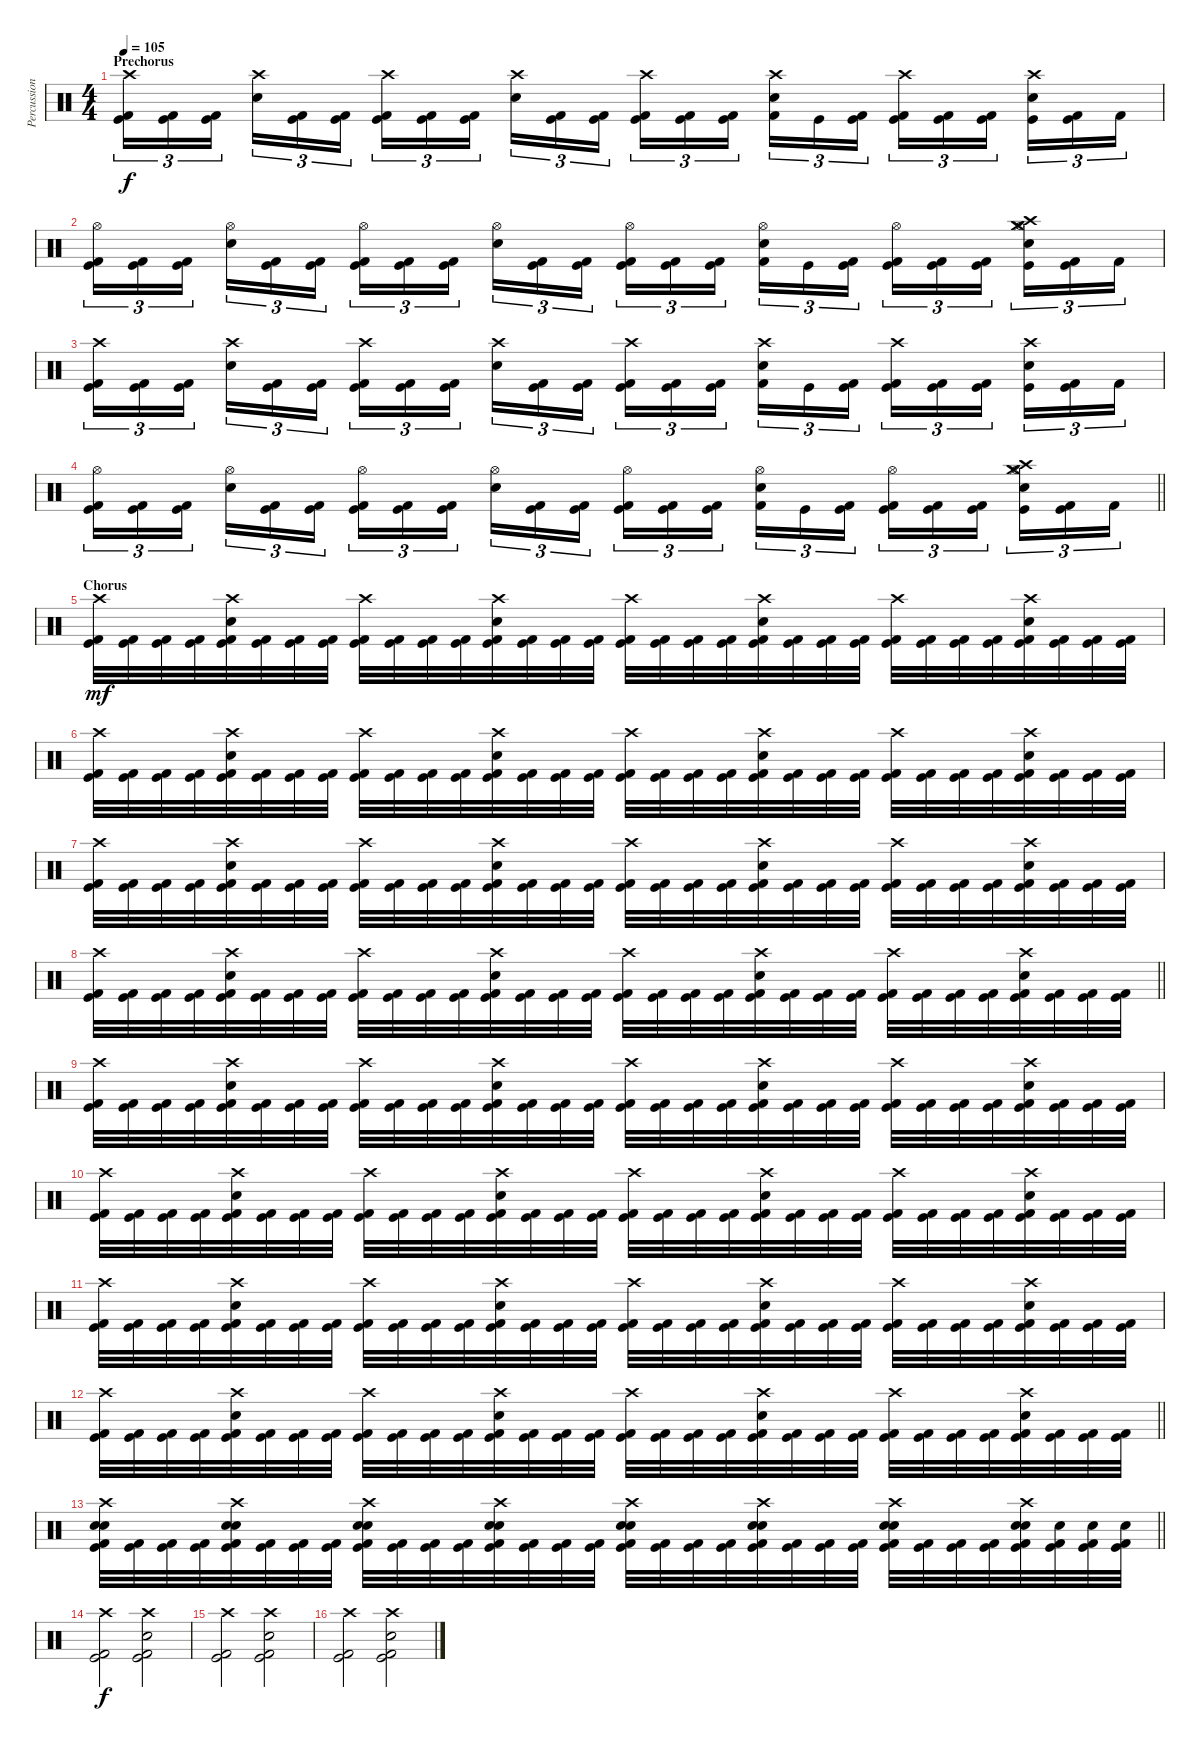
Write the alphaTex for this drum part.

\track ("Percussion" "Percussion") {instrument percussion}
\staff {score}
\articulation defaults
\ts (4 4)
\section ("" "Prechorus")
\tempo 105
\clef neutral
\ks c
("Crash high (hit)" "Kick (hit)" "Kick (hit) 2").16{tu (3 2) dy f} ("Kick (hit)" "Kick (hit) 2").16{tu (3 2)} ("Kick (hit)" "Kick (hit) 2").16{tu (3 2) beam splitsecondary} ("Crash high (hit)" "Snare (hit) 2").16{tu (3 2)} ("Kick (hit) 2" "Kick (hit)").16{tu (3 2)} ("Kick (hit) 2" "Kick (hit)").16{tu (3 2)} ("Crash high (hit)" "Kick (hit) 2" "Kick (hit)").16{tu (3 2)} ("Kick (hit) 2" "Kick (hit)").16{tu (3 2)} ("Kick (hit) 2" "Kick (hit)").16{tu (3 2) beam splitsecondary} ("Crash high (hit)" "Snare (hit) 2").16{tu (3 2)} ("Kick (hit)" "Kick (hit) 2").16{tu (3 2)} ("Kick (hit)" "Kick (hit) 2").16{tu (3 2)} ("Crash high (hit)" "Kick (hit)" "Kick (hit) 2").16{tu (3 2)} ("Kick (hit)" "Kick (hit) 2").16{tu (3 2)} ("Kick (hit)" "Kick (hit) 2").16{tu (3 2) beam splitsecondary} ("Crash high (hit)" "Snare (hit) 2" "Kick (hit) 2").16{tu (3 2)} "Kick (hit)".16{tu (3 2)} ("Kick (hit) 2" "Kick (hit)").16{tu (3 2)} ("Crash high (hit)" "Kick (hit) 2" "Kick (hit)").16{tu (3 2)} ("Kick (hit) 2" "Kick (hit)").16{tu (3 2)} ("Kick (hit) 2" "Kick (hit)").16{tu (3 2) beam splitsecondary} ("Crash high (hit)" "Snare (hit) 2" "Kick (hit)").16{tu (3 2)} ("Kick (hit) 2" "Kick (hit)").16{tu (3 2)} "Kick (hit) 2".16{tu (3 2)} |
("Hi-Hat (open)" "Kick (hit)" "Kick (hit) 2").16{tu (3 2)} ("Kick (hit)" "Kick (hit) 2").16{tu (3 2)} ("Kick (hit)" "Kick (hit) 2").16{tu (3 2) beam splitsecondary} ("Hi-Hat (open)" "Snare (hit) 2").16{tu (3 2)} ("Kick (hit) 2" "Kick (hit)").16{tu (3 2)} ("Kick (hit) 2" "Kick (hit)").16{tu (3 2)} ("Hi-Hat (open)" "Kick (hit) 2" "Kick (hit)").16{tu (3 2)} ("Kick (hit) 2" "Kick (hit)").16{tu (3 2)} ("Kick (hit) 2" "Kick (hit)").16{tu (3 2) beam splitsecondary} ("Hi-Hat (open)" "Snare (hit) 2").16{tu (3 2)} ("Kick (hit)" "Kick (hit) 2").16{tu (3 2)} ("Kick (hit)" "Kick (hit) 2").16{tu (3 2)} ("Hi-Hat (open)" "Kick (hit)" "Kick (hit) 2").16{tu (3 2)} ("Kick (hit)" "Kick (hit) 2").16{tu (3 2)} ("Kick (hit)" "Kick (hit) 2").16{tu (3 2) beam splitsecondary} ("Hi-Hat (open)" "Snare (hit) 2" "Kick (hit) 2").16{tu (3 2)} "Kick (hit)".16{tu (3 2)} ("Kick (hit) 2" "Kick (hit)").16{tu (3 2)} ("Hi-Hat (open)" "Kick (hit) 2" "Kick (hit)").16{tu (3 2)} ("Kick (hit) 2" "Kick (hit)").16{tu (3 2)} ("Kick (hit) 2" "Kick (hit)").16{tu (3 2) beam splitsecondary} ("Hi-Hat (closed)" "Crash high (hit)" "Hi-Hat (open)" "Crash medium (hit)" "Snare (hit) 2" "Kick (hit)").16{tu (3 2)} ("Kick (hit) 2" "Kick (hit)").16{tu (3 2)} "Kick (hit) 2".16{tu (3 2)} |
("Crash high (hit)" "Kick (hit)" "Kick (hit) 2").16{tu (3 2)} ("Kick (hit)" "Kick (hit) 2").16{tu (3 2)} ("Kick (hit)" "Kick (hit) 2").16{tu (3 2) beam splitsecondary} ("Crash high (hit)" "Snare (hit) 2").16{tu (3 2)} ("Kick (hit) 2" "Kick (hit)").16{tu (3 2)} ("Kick (hit) 2" "Kick (hit)").16{tu (3 2)} ("Crash high (hit)" "Kick (hit) 2" "Kick (hit)").16{tu (3 2)} ("Kick (hit) 2" "Kick (hit)").16{tu (3 2)} ("Kick (hit) 2" "Kick (hit)").16{tu (3 2) beam splitsecondary} ("Crash high (hit)" "Snare (hit) 2").16{tu (3 2)} ("Kick (hit)" "Kick (hit) 2").16{tu (3 2)} ("Kick (hit)" "Kick (hit) 2").16{tu (3 2)} ("Crash high (hit)" "Kick (hit)" "Kick (hit) 2").16{tu (3 2)} ("Kick (hit)" "Kick (hit) 2").16{tu (3 2)} ("Kick (hit)" "Kick (hit) 2").16{tu (3 2) beam splitsecondary} ("Crash high (hit)" "Snare (hit) 2" "Kick (hit) 2").16{tu (3 2)} "Kick (hit)".16{tu (3 2)} ("Kick (hit) 2" "Kick (hit)").16{tu (3 2)} ("Crash high (hit)" "Kick (hit) 2" "Kick (hit)").16{tu (3 2)} ("Kick (hit) 2" "Kick (hit)").16{tu (3 2)} ("Kick (hit) 2" "Kick (hit)").16{tu (3 2) beam splitsecondary} ("Crash high (hit)" "Snare (hit) 2" "Kick (hit)").16{tu (3 2)} ("Kick (hit) 2" "Kick (hit)").16{tu (3 2)} "Kick (hit) 2".16{tu (3 2)} |
\barLineRight lightlight
("Hi-Hat (open)" "Kick (hit)" "Kick (hit) 2").16{tu (3 2)} ("Kick (hit)" "Kick (hit) 2").16{tu (3 2)} ("Kick (hit)" "Kick (hit) 2").16{tu (3 2) beam splitsecondary} ("Hi-Hat (open)" "Snare (hit) 2").16{tu (3 2)} ("Kick (hit) 2" "Kick (hit)").16{tu (3 2)} ("Kick (hit) 2" "Kick (hit)").16{tu (3 2)} ("Hi-Hat (open)" "Kick (hit) 2" "Kick (hit)").16{tu (3 2)} ("Kick (hit) 2" "Kick (hit)").16{tu (3 2)} ("Kick (hit) 2" "Kick (hit)").16{tu (3 2) beam splitsecondary} ("Hi-Hat (open)" "Snare (hit) 2").16{tu (3 2)} ("Kick (hit)" "Kick (hit) 2").16{tu (3 2)} ("Kick (hit)" "Kick (hit) 2").16{tu (3 2)} ("Hi-Hat (open)" "Kick (hit)" "Kick (hit) 2").16{tu (3 2)} ("Kick (hit)" "Kick (hit) 2").16{tu (3 2)} ("Kick (hit)" "Kick (hit) 2").16{tu (3 2) beam splitsecondary} ("Hi-Hat (open)" "Snare (hit) 2" "Kick (hit) 2").16{tu (3 2)} "Kick (hit)".16{tu (3 2)} ("Kick (hit) 2" "Kick (hit)").16{tu (3 2)} ("Hi-Hat (open)" "Kick (hit) 2" "Kick (hit)").16{tu (3 2)} ("Kick (hit) 2" "Kick (hit)").16{tu (3 2)} ("Kick (hit) 2" "Kick (hit)").16{tu (3 2) beam splitsecondary} ("Hi-Hat (closed)" "Crash high (hit)" "Hi-Hat (open)" "Crash medium (hit)" "Snare (hit) 2" "Kick (hit)").16{tu (3 2)} ("Kick (hit) 2" "Kick (hit)").16{tu (3 2)} "Kick (hit) 2".16{tu (3 2)} |
\section ("" "Chorus")
("Crash high (hit)" "Kick (hit)" "Kick (hit) 2").32{dy mf} ("Kick (hit)" "Kick (hit) 2").32 ("Kick (hit)" "Kick (hit) 2").32 ("Kick (hit)" "Kick (hit) 2").32 ("Crash high (hit)" "Snare (hit) 2" "Kick (hit)" "Kick (hit) 2").32 ("Kick (hit)" "Kick (hit) 2").32 ("Kick (hit)" "Kick (hit) 2").32 ("Kick (hit)" "Kick (hit) 2").32 ("Crash high (hit)" "Kick (hit)" "Kick (hit) 2").32 ("Kick (hit)" "Kick (hit) 2").32 ("Kick (hit)" "Kick (hit) 2").32 ("Kick (hit)" "Kick (hit) 2").32 ("Crash high (hit)" "Snare (hit) 2" "Kick (hit)" "Kick (hit) 2").32 ("Kick (hit)" "Kick (hit) 2").32 ("Kick (hit)" "Kick (hit) 2").32 ("Kick (hit)" "Kick (hit) 2").32 ("Crash high (hit)" "Kick (hit)" "Kick (hit) 2").32 ("Kick (hit)" "Kick (hit) 2").32 ("Kick (hit)" "Kick (hit) 2").32 ("Kick (hit)" "Kick (hit) 2").32 ("Crash high (hit)" "Snare (hit) 2" "Kick (hit)" "Kick (hit) 2").32 ("Kick (hit)" "Kick (hit) 2").32 ("Kick (hit)" "Kick (hit) 2").32 ("Kick (hit)" "Kick (hit) 2").32 ("Crash high (hit)" "Kick (hit)" "Kick (hit) 2").32 ("Kick (hit)" "Kick (hit) 2").32 ("Kick (hit)" "Kick (hit) 2").32 ("Kick (hit)" "Kick (hit) 2").32 ("Crash high (hit)" "Snare (hit) 2" "Kick (hit)" "Kick (hit) 2").32 ("Kick (hit)" "Kick (hit) 2").32 ("Kick (hit)" "Kick (hit) 2").32 ("Kick (hit)" "Kick (hit) 2").32 |
("Crash high (hit)" "Kick (hit)" "Kick (hit) 2").32 ("Kick (hit)" "Kick (hit) 2").32 ("Kick (hit)" "Kick (hit) 2").32 ("Kick (hit)" "Kick (hit) 2").32 ("Crash high (hit)" "Snare (hit) 2" "Kick (hit)" "Kick (hit) 2").32 ("Kick (hit)" "Kick (hit) 2").32 ("Kick (hit)" "Kick (hit) 2").32 ("Kick (hit)" "Kick (hit) 2").32 ("Crash high (hit)" "Kick (hit)" "Kick (hit) 2").32 ("Kick (hit)" "Kick (hit) 2").32 ("Kick (hit)" "Kick (hit) 2").32 ("Kick (hit)" "Kick (hit) 2").32 ("Crash high (hit)" "Snare (hit) 2" "Kick (hit)" "Kick (hit) 2").32 ("Kick (hit)" "Kick (hit) 2").32 ("Kick (hit)" "Kick (hit) 2").32 ("Kick (hit)" "Kick (hit) 2").32 ("Crash high (hit)" "Kick (hit)" "Kick (hit) 2").32 ("Kick (hit)" "Kick (hit) 2").32 ("Kick (hit)" "Kick (hit) 2").32 ("Kick (hit)" "Kick (hit) 2").32 ("Crash high (hit)" "Snare (hit) 2" "Kick (hit)" "Kick (hit) 2").32 ("Kick (hit)" "Kick (hit) 2").32 ("Kick (hit)" "Kick (hit) 2").32 ("Kick (hit)" "Kick (hit) 2").32 ("Crash high (hit)" "Kick (hit)" "Kick (hit) 2").32 ("Kick (hit)" "Kick (hit) 2").32 ("Kick (hit)" "Kick (hit) 2").32 ("Kick (hit)" "Kick (hit) 2").32 ("Crash high (hit)" "Snare (hit) 2" "Kick (hit)" "Kick (hit) 2").32 ("Kick (hit)" "Kick (hit) 2").32 ("Kick (hit)" "Kick (hit) 2").32 ("Kick (hit)" "Kick (hit) 2").32 |
("Crash high (hit)" "Kick (hit)" "Kick (hit) 2").32 ("Kick (hit)" "Kick (hit) 2").32 ("Kick (hit)" "Kick (hit) 2").32 ("Kick (hit)" "Kick (hit) 2").32 ("Crash high (hit)" "Snare (hit) 2" "Kick (hit)" "Kick (hit) 2").32 ("Kick (hit)" "Kick (hit) 2").32 ("Kick (hit)" "Kick (hit) 2").32 ("Kick (hit)" "Kick (hit) 2").32 ("Crash high (hit)" "Kick (hit)" "Kick (hit) 2").32 ("Kick (hit)" "Kick (hit) 2").32 ("Kick (hit)" "Kick (hit) 2").32 ("Kick (hit)" "Kick (hit) 2").32 ("Crash high (hit)" "Snare (hit) 2" "Kick (hit)" "Kick (hit) 2").32 ("Kick (hit)" "Kick (hit) 2").32 ("Kick (hit)" "Kick (hit) 2").32 ("Kick (hit)" "Kick (hit) 2").32 ("Crash high (hit)" "Kick (hit)" "Kick (hit) 2").32 ("Kick (hit)" "Kick (hit) 2").32 ("Kick (hit)" "Kick (hit) 2").32 ("Kick (hit)" "Kick (hit) 2").32 ("Crash high (hit)" "Snare (hit) 2" "Kick (hit)" "Kick (hit) 2").32 ("Kick (hit)" "Kick (hit) 2").32 ("Kick (hit)" "Kick (hit) 2").32 ("Kick (hit)" "Kick (hit) 2").32 ("Crash high (hit)" "Kick (hit)" "Kick (hit) 2").32 ("Kick (hit)" "Kick (hit) 2").32 ("Kick (hit)" "Kick (hit) 2").32 ("Kick (hit)" "Kick (hit) 2").32 ("Crash high (hit)" "Snare (hit) 2" "Kick (hit)" "Kick (hit) 2").32 ("Kick (hit)" "Kick (hit) 2").32 ("Kick (hit)" "Kick (hit) 2").32 ("Kick (hit)" "Kick (hit) 2").32 |
\barLineRight lightlight
("Crash high (hit)" "Kick (hit)" "Kick (hit) 2").32 ("Kick (hit)" "Kick (hit) 2").32 ("Kick (hit)" "Kick (hit) 2").32 ("Kick (hit)" "Kick (hit) 2").32 ("Crash high (hit)" "Snare (hit) 2" "Kick (hit)" "Kick (hit) 2").32 ("Kick (hit)" "Kick (hit) 2").32 ("Kick (hit)" "Kick (hit) 2").32 ("Kick (hit)" "Kick (hit) 2").32 ("Crash high (hit)" "Kick (hit)" "Kick (hit) 2").32 ("Kick (hit)" "Kick (hit) 2").32 ("Kick (hit)" "Kick (hit) 2").32 ("Kick (hit)" "Kick (hit) 2").32 ("Crash high (hit)" "Snare (hit) 2" "Kick (hit)" "Kick (hit) 2").32 ("Kick (hit)" "Kick (hit) 2").32 ("Kick (hit)" "Kick (hit) 2").32 ("Kick (hit)" "Kick (hit) 2").32 ("Crash high (hit)" "Kick (hit)" "Kick (hit) 2").32 ("Kick (hit)" "Kick (hit) 2").32 ("Kick (hit)" "Kick (hit) 2").32 ("Kick (hit)" "Kick (hit) 2").32 ("Crash high (hit)" "Snare (hit) 2" "Kick (hit)" "Kick (hit) 2").32 ("Kick (hit)" "Kick (hit) 2").32 ("Kick (hit)" "Kick (hit) 2").32 ("Kick (hit)" "Kick (hit) 2").32 ("Crash high (hit)" "Kick (hit)" "Kick (hit) 2").32 ("Kick (hit)" "Kick (hit) 2").32 ("Kick (hit)" "Kick (hit) 2").32 ("Kick (hit)" "Kick (hit) 2").32 ("Crash high (hit)" "Snare (hit) 2" "Kick (hit)" "Kick (hit) 2").32 ("Kick (hit)" "Kick (hit) 2").32 ("Kick (hit)" "Kick (hit) 2").32 ("Kick (hit)" "Kick (hit) 2").32 |
("Crash high (hit)" "Kick (hit)" "Kick (hit) 2").32 ("Kick (hit)" "Kick (hit) 2").32 ("Kick (hit)" "Kick (hit) 2").32 ("Kick (hit)" "Kick (hit) 2").32 ("Crash high (hit)" "Snare (hit) 2" "Kick (hit)" "Kick (hit) 2").32 ("Kick (hit)" "Kick (hit) 2").32 ("Kick (hit)" "Kick (hit) 2").32 ("Kick (hit)" "Kick (hit) 2").32 ("Crash high (hit)" "Kick (hit)" "Kick (hit) 2").32 ("Kick (hit)" "Kick (hit) 2").32 ("Kick (hit)" "Kick (hit) 2").32 ("Kick (hit)" "Kick (hit) 2").32 ("Crash high (hit)" "Snare (hit) 2" "Kick (hit)" "Kick (hit) 2").32 ("Kick (hit)" "Kick (hit) 2").32 ("Kick (hit)" "Kick (hit) 2").32 ("Kick (hit)" "Kick (hit) 2").32 ("Crash high (hit)" "Kick (hit)" "Kick (hit) 2").32 ("Kick (hit)" "Kick (hit) 2").32 ("Kick (hit)" "Kick (hit) 2").32 ("Kick (hit)" "Kick (hit) 2").32 ("Crash high (hit)" "Snare (hit) 2" "Kick (hit)" "Kick (hit) 2").32 ("Kick (hit)" "Kick (hit) 2").32 ("Kick (hit)" "Kick (hit) 2").32 ("Kick (hit)" "Kick (hit) 2").32 ("Crash high (hit)" "Kick (hit)" "Kick (hit) 2").32 ("Kick (hit)" "Kick (hit) 2").32 ("Kick (hit)" "Kick (hit) 2").32 ("Kick (hit)" "Kick (hit) 2").32 ("Crash high (hit)" "Snare (hit) 2" "Kick (hit)" "Kick (hit) 2").32 ("Kick (hit)" "Kick (hit) 2").32 ("Kick (hit)" "Kick (hit) 2").32 ("Kick (hit)" "Kick (hit) 2").32 |
("Crash high (hit)" "Kick (hit)" "Kick (hit) 2").32 ("Kick (hit)" "Kick (hit) 2").32 ("Kick (hit)" "Kick (hit) 2").32 ("Kick (hit)" "Kick (hit) 2").32 ("Crash high (hit)" "Snare (hit) 2" "Kick (hit)" "Kick (hit) 2").32 ("Kick (hit)" "Kick (hit) 2").32 ("Kick (hit)" "Kick (hit) 2").32 ("Kick (hit)" "Kick (hit) 2").32 ("Crash high (hit)" "Kick (hit)" "Kick (hit) 2").32 ("Kick (hit)" "Kick (hit) 2").32 ("Kick (hit)" "Kick (hit) 2").32 ("Kick (hit)" "Kick (hit) 2").32 ("Crash high (hit)" "Snare (hit) 2" "Kick (hit)" "Kick (hit) 2").32 ("Kick (hit)" "Kick (hit) 2").32 ("Kick (hit)" "Kick (hit) 2").32 ("Kick (hit)" "Kick (hit) 2").32 ("Crash high (hit)" "Kick (hit)" "Kick (hit) 2").32 ("Kick (hit)" "Kick (hit) 2").32 ("Kick (hit)" "Kick (hit) 2").32 ("Kick (hit)" "Kick (hit) 2").32 ("Crash high (hit)" "Snare (hit) 2" "Kick (hit)" "Kick (hit) 2").32 ("Kick (hit)" "Kick (hit) 2").32 ("Kick (hit)" "Kick (hit) 2").32 ("Kick (hit)" "Kick (hit) 2").32 ("Crash high (hit)" "Kick (hit)" "Kick (hit) 2").32 ("Kick (hit)" "Kick (hit) 2").32 ("Kick (hit)" "Kick (hit) 2").32 ("Kick (hit)" "Kick (hit) 2").32 ("Crash high (hit)" "Snare (hit) 2" "Kick (hit)" "Kick (hit) 2").32 ("Kick (hit)" "Kick (hit) 2").32 ("Kick (hit)" "Kick (hit) 2").32 ("Kick (hit)" "Kick (hit) 2").32 |
("Crash high (hit)" "Kick (hit)" "Kick (hit) 2").32 ("Kick (hit)" "Kick (hit) 2").32 ("Kick (hit)" "Kick (hit) 2").32 ("Kick (hit)" "Kick (hit) 2").32 ("Crash high (hit)" "Snare (hit) 2" "Kick (hit)" "Kick (hit) 2").32 ("Kick (hit)" "Kick (hit) 2").32 ("Kick (hit)" "Kick (hit) 2").32 ("Kick (hit)" "Kick (hit) 2").32 ("Crash high (hit)" "Kick (hit)" "Kick (hit) 2").32 ("Kick (hit)" "Kick (hit) 2").32 ("Kick (hit)" "Kick (hit) 2").32 ("Kick (hit)" "Kick (hit) 2").32 ("Crash high (hit)" "Snare (hit) 2" "Kick (hit)" "Kick (hit) 2").32 ("Kick (hit)" "Kick (hit) 2").32 ("Kick (hit)" "Kick (hit) 2").32 ("Kick (hit)" "Kick (hit) 2").32 ("Crash high (hit)" "Kick (hit)" "Kick (hit) 2").32 ("Kick (hit)" "Kick (hit) 2").32 ("Kick (hit)" "Kick (hit) 2").32 ("Kick (hit)" "Kick (hit) 2").32 ("Crash high (hit)" "Snare (hit) 2" "Kick (hit)" "Kick (hit) 2").32 ("Kick (hit)" "Kick (hit) 2").32 ("Kick (hit)" "Kick (hit) 2").32 ("Kick (hit)" "Kick (hit) 2").32 ("Crash high (hit)" "Kick (hit)" "Kick (hit) 2").32 ("Kick (hit)" "Kick (hit) 2").32 ("Kick (hit)" "Kick (hit) 2").32 ("Kick (hit)" "Kick (hit) 2").32 ("Crash high (hit)" "Snare (hit) 2" "Kick (hit)" "Kick (hit) 2").32 ("Kick (hit)" "Kick (hit) 2").32 ("Kick (hit)" "Kick (hit) 2").32 ("Kick (hit)" "Kick (hit) 2").32 |
\barLineRight lightlight
("Crash high (hit)" "Kick (hit)" "Kick (hit) 2").32 ("Kick (hit)" "Kick (hit) 2").32 ("Kick (hit)" "Kick (hit) 2").32 ("Kick (hit)" "Kick (hit) 2").32 ("Crash high (hit)" "Snare (hit) 2" "Kick (hit)" "Kick (hit) 2").32 ("Kick (hit)" "Kick (hit) 2").32 ("Kick (hit)" "Kick (hit) 2").32 ("Kick (hit)" "Kick (hit) 2").32 ("Crash high (hit)" "Kick (hit)" "Kick (hit) 2").32 ("Kick (hit)" "Kick (hit) 2").32 ("Kick (hit)" "Kick (hit) 2").32 ("Kick (hit)" "Kick (hit) 2").32 ("Crash high (hit)" "Snare (hit) 2" "Kick (hit)" "Kick (hit) 2").32 ("Kick (hit)" "Kick (hit) 2").32 ("Kick (hit)" "Kick (hit) 2").32 ("Kick (hit)" "Kick (hit) 2").32 ("Crash high (hit)" "Kick (hit)" "Kick (hit) 2").32 ("Kick (hit)" "Kick (hit) 2").32 ("Kick (hit)" "Kick (hit) 2").32 ("Kick (hit)" "Kick (hit) 2").32 ("Crash high (hit)" "Snare (hit) 2" "Kick (hit)" "Kick (hit) 2").32 ("Kick (hit)" "Kick (hit) 2").32 ("Kick (hit)" "Kick (hit) 2").32 ("Kick (hit)" "Kick (hit) 2").32 ("Crash high (hit)" "Kick (hit)" "Kick (hit) 2").32 ("Kick (hit)" "Kick (hit) 2").32 ("Kick (hit)" "Kick (hit) 2").32 ("Kick (hit)" "Kick (hit) 2").32 ("Crash high (hit)" "Snare (hit) 2" "Kick (hit)" "Kick (hit) 2").32 ("Kick (hit)" "Kick (hit) 2").32 ("Kick (hit)" "Kick (hit) 2").32 ("Kick (hit)" "Kick (hit) 2").32 |
\barLineRight lightlight
("Crash high (hit)" "Snare (hit) 2" "Kick (hit)" "Kick (hit) 2" "Snare (hit) 2").32 ("Kick (hit)" "Kick (hit) 2").32 ("Kick (hit)" "Kick (hit) 2").32 ("Kick (hit)" "Kick (hit) 2").32 ("Crash high (hit)" "Snare (hit) 2" "Kick (hit)" "Kick (hit) 2" "Snare (hit) 2").32 ("Kick (hit)" "Kick (hit) 2").32 ("Kick (hit)" "Kick (hit) 2").32 ("Kick (hit)" "Kick (hit) 2").32 ("Crash high (hit)" "Snare (hit) 2" "Kick (hit)" "Kick (hit) 2" "Snare (hit) 2").32 ("Kick (hit)" "Kick (hit) 2").32 ("Kick (hit)" "Kick (hit) 2").32 ("Kick (hit)" "Kick (hit) 2").32 ("Crash high (hit)" "Snare (hit) 2" "Kick (hit)" "Kick (hit) 2" "Snare (hit) 2").32 ("Kick (hit)" "Kick (hit) 2").32 ("Kick (hit)" "Kick (hit) 2").32 ("Kick (hit)" "Kick (hit) 2").32 ("Crash high (hit)" "Snare (hit) 2" "Kick (hit)" "Kick (hit) 2" "Snare (hit) 2").32 ("Kick (hit)" "Kick (hit) 2").32 ("Kick (hit)" "Kick (hit) 2").32 ("Kick (hit)" "Kick (hit) 2").32 ("Crash high (hit)" "Snare (hit) 2" "Kick (hit)" "Kick (hit) 2" "Snare (hit) 2").32 ("Kick (hit)" "Kick (hit) 2").32 ("Kick (hit)" "Kick (hit) 2").32 ("Kick (hit)" "Kick (hit) 2").32 ("Crash high (hit)" "Snare (hit) 2" "Kick (hit)" "Kick (hit) 2" "Snare (hit) 2").32 ("Kick (hit)" "Kick (hit) 2").32 ("Kick (hit)" "Kick (hit) 2").32 ("Kick (hit)" "Kick (hit) 2").32 ("Crash high (hit)" "Snare (hit) 2" "Kick (hit)" "Kick (hit) 2" "Snare (hit) 2").32 ("Kick (hit)" "Kick (hit) 2" "Snare (hit) 2").32 ("Kick (hit)" "Kick (hit) 2" "Snare (hit) 2").32 ("Kick (hit)" "Kick (hit) 2" "Snare (hit) 2").32 |
("Crash high (hit)" "Kick (hit) 2" "Kick (hit)").2{dy f} ("Crash high (hit)" "Snare (hit) 2" "Kick (hit) 2" "Kick (hit)").2 |
("Crash high (hit)" "Kick (hit) 2" "Kick (hit)").2 ("Crash high (hit)" "Snare (hit) 2" "Kick (hit) 2" "Kick (hit)").2 |
("Crash high (hit)" "Kick (hit) 2" "Kick (hit)").2 ("Crash high (hit)" "Snare (hit) 2" "Kick (hit) 2" "Kick (hit)").2
